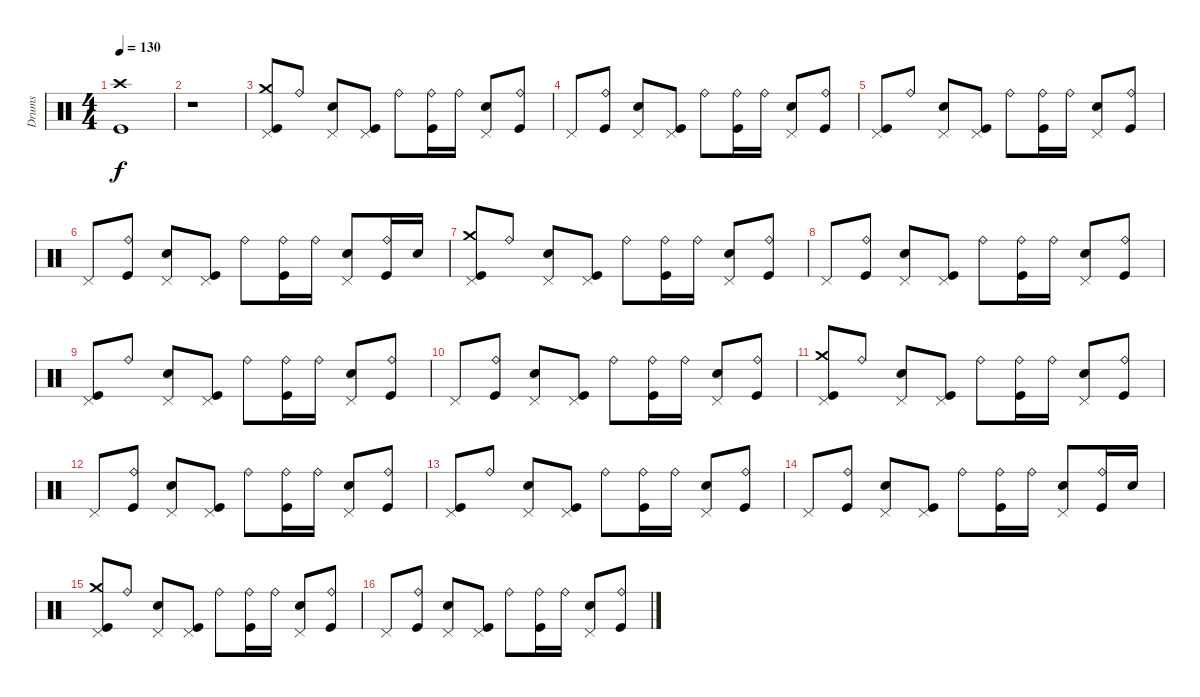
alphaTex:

\track ("Drums" "Drums") {instrument percussion}
\staff {score}
\articulation defaults
\ts (4 4)
\tempo 130
\clef neutral
\ks c
("Kick (hit)" "Crash high (hit)").1{dy f} |
r.1 |
("Kick (hit)" "Crash medium (hit)" "Pedal Hi-Hat (hit)").8 "Ride (bell)".8 ("Electric Snare (hit)" "Pedal Hi-Hat (hit)").8 ("Kick (hit)" "Pedal Hi-Hat (hit)").8 "Ride (bell)".8 ("Kick (hit)" "Ride (bell)").16 "Ride (bell)".16 ("Electric Snare (hit)" "Pedal Hi-Hat (hit)").8 ("Kick (hit)" "Ride (bell)").8 |
"Pedal Hi-Hat (hit)".8 ("Kick (hit)" "Ride (bell)").8 ("Electric Snare (hit)" "Pedal Hi-Hat (hit)").8 ("Kick (hit)" "Pedal Hi-Hat (hit)").8 "Ride (bell)".8 ("Kick (hit)" "Ride (bell)").16 "Ride (bell)".16 ("Electric Snare (hit)" "Pedal Hi-Hat (hit)").8 ("Kick (hit)" "Ride (bell)").8 |
("Kick (hit)" "Pedal Hi-Hat (hit)").8 "Ride (bell)".8 ("Electric Snare (hit)" "Pedal Hi-Hat (hit)").8 ("Kick (hit)" "Pedal Hi-Hat (hit)").8 "Ride (bell)".8 ("Kick (hit)" "Ride (bell)").16 "Ride (bell)".16 ("Electric Snare (hit)" "Pedal Hi-Hat (hit)").8 ("Kick (hit)" "Ride (bell)").8 |
"Pedal Hi-Hat (hit)".8 ("Kick (hit)" "Ride (bell)").8 ("Electric Snare (hit)" "Pedal Hi-Hat (hit)").8 ("Kick (hit)" "Pedal Hi-Hat (hit)").8 "Ride (bell)".8 ("Kick (hit)" "Ride (bell)").16 "Ride (bell)".16 ("Electric Snare (hit)" "Pedal Hi-Hat (hit)").8 ("Kick (hit)" "Ride (bell)").16 "Electric Snare (hit)".16 |
("Kick (hit)" "Crash medium (hit)" "Pedal Hi-Hat (hit)").8 "Ride (bell)".8 ("Electric Snare (hit)" "Pedal Hi-Hat (hit)").8 ("Kick (hit)" "Pedal Hi-Hat (hit)").8 "Ride (bell)".8 ("Kick (hit)" "Ride (bell)").16 "Ride (bell)".16 ("Electric Snare (hit)" "Pedal Hi-Hat (hit)").8 ("Kick (hit)" "Ride (bell)").8 |
"Pedal Hi-Hat (hit)".8 ("Kick (hit)" "Ride (bell)").8 ("Electric Snare (hit)" "Pedal Hi-Hat (hit)").8 ("Kick (hit)" "Pedal Hi-Hat (hit)").8 "Ride (bell)".8 ("Kick (hit)" "Ride (bell)").16 "Ride (bell)".16 ("Electric Snare (hit)" "Pedal Hi-Hat (hit)").8 ("Kick (hit)" "Ride (bell)").8 |
("Kick (hit)" "Pedal Hi-Hat (hit)").8 "Ride (bell)".8 ("Electric Snare (hit)" "Pedal Hi-Hat (hit)").8 ("Kick (hit)" "Pedal Hi-Hat (hit)").8 "Ride (bell)".8 ("Kick (hit)" "Ride (bell)").16 "Ride (bell)".16 ("Electric Snare (hit)" "Pedal Hi-Hat (hit)").8 ("Kick (hit)" "Ride (bell)").8 |
"Pedal Hi-Hat (hit)".8 ("Kick (hit)" "Ride (bell)").8 ("Electric Snare (hit)" "Pedal Hi-Hat (hit)").8 ("Kick (hit)" "Pedal Hi-Hat (hit)").8 "Ride (bell)".8 ("Kick (hit)" "Ride (bell)").16 "Ride (bell)".16 ("Electric Snare (hit)" "Pedal Hi-Hat (hit)").8 ("Kick (hit)" "Ride (bell)").8 |
("Kick (hit)" "Crash medium (hit)" "Pedal Hi-Hat (hit)").8 "Ride (bell)".8 ("Electric Snare (hit)" "Pedal Hi-Hat (hit)").8 ("Kick (hit)" "Pedal Hi-Hat (hit)").8 "Ride (bell)".8 ("Kick (hit)" "Ride (bell)").16 "Ride (bell)".16 ("Electric Snare (hit)" "Pedal Hi-Hat (hit)").8 ("Kick (hit)" "Ride (bell)").8 |
"Pedal Hi-Hat (hit)".8 ("Kick (hit)" "Ride (bell)").8 ("Electric Snare (hit)" "Pedal Hi-Hat (hit)").8 ("Kick (hit)" "Pedal Hi-Hat (hit)").8 "Ride (bell)".8 ("Kick (hit)" "Ride (bell)").16 "Ride (bell)".16 ("Electric Snare (hit)" "Pedal Hi-Hat (hit)").8 ("Kick (hit)" "Ride (bell)").8 |
("Kick (hit)" "Pedal Hi-Hat (hit)").8 "Ride (bell)".8 ("Electric Snare (hit)" "Pedal Hi-Hat (hit)").8 ("Kick (hit)" "Pedal Hi-Hat (hit)").8 "Ride (bell)".8 ("Kick (hit)" "Ride (bell)").16 "Ride (bell)".16 ("Electric Snare (hit)" "Pedal Hi-Hat (hit)").8 ("Kick (hit)" "Ride (bell)").8 |
"Pedal Hi-Hat (hit)".8 ("Kick (hit)" "Ride (bell)").8 ("Electric Snare (hit)" "Pedal Hi-Hat (hit)").8 ("Kick (hit)" "Pedal Hi-Hat (hit)").8 "Ride (bell)".8 ("Kick (hit)" "Ride (bell)").16 "Ride (bell)".16 ("Electric Snare (hit)" "Pedal Hi-Hat (hit)").8 ("Kick (hit)" "Ride (bell)").16 "Electric Snare (hit)".16 |
("Kick (hit)" "Crash medium (hit)" "Pedal Hi-Hat (hit)").8 "Ride (bell)".8 ("Electric Snare (hit)" "Pedal Hi-Hat (hit)").8 ("Kick (hit)" "Pedal Hi-Hat (hit)").8 "Ride (bell)".8 ("Kick (hit)" "Ride (bell)").16 "Ride (bell)".16 ("Electric Snare (hit)" "Pedal Hi-Hat (hit)").8 ("Kick (hit)" "Ride (bell)").8 |
"Pedal Hi-Hat (hit)".8 ("Kick (hit)" "Ride (bell)").8 ("Electric Snare (hit)" "Pedal Hi-Hat (hit)").8 ("Kick (hit)" "Pedal Hi-Hat (hit)").8 "Ride (bell)".8 ("Kick (hit)" "Ride (bell)").16 "Ride (bell)".16 ("Electric Snare (hit)" "Pedal Hi-Hat (hit)").8 ("Kick (hit)" "Ride (bell)").8
